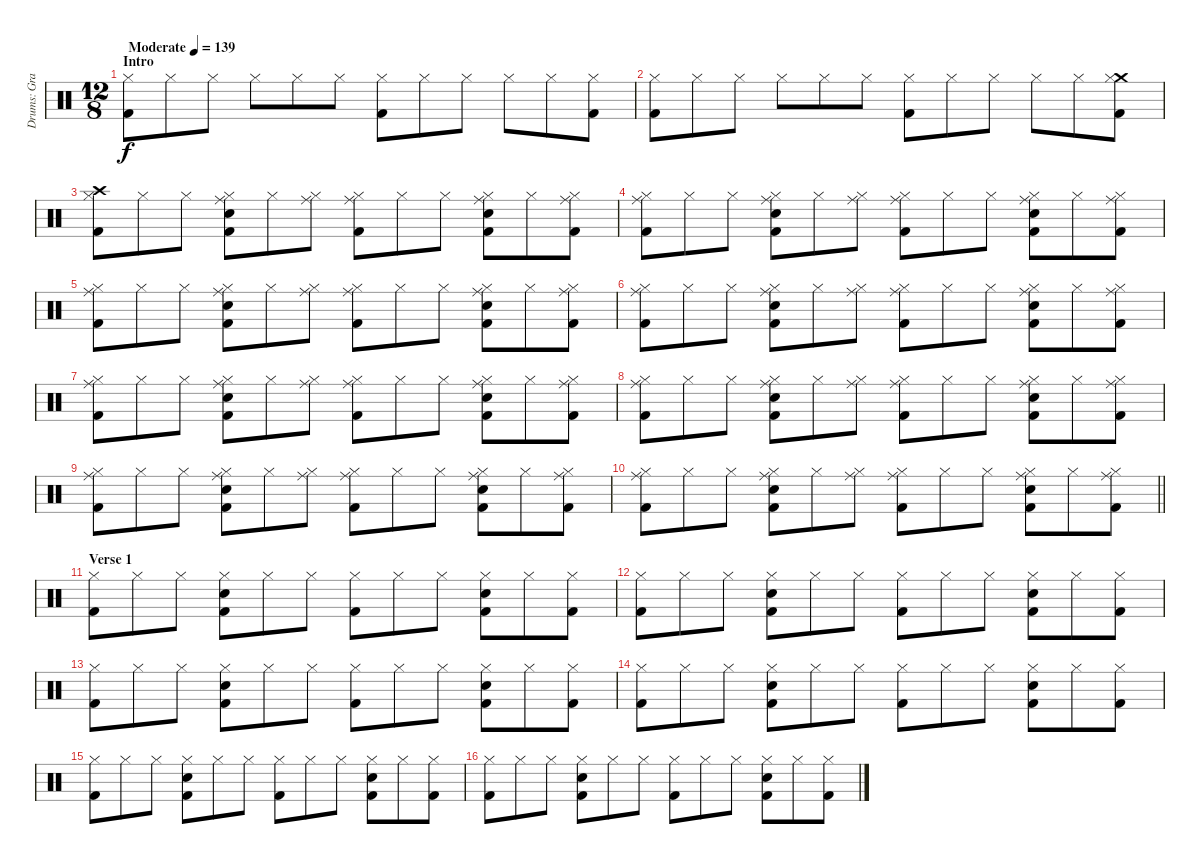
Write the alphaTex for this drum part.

\track ("Drums: Graeme Edge" "Drums: Gra") {instrument percussion}
\staff {score}
\articulation defaults
\ts (12 8)
\section ("" "Intro")
\tempo (139 "Moderate")
\clef neutral
\ks c
("Hi-Hat (closed)" "Kick (hit) 2").8{dy f} "Hi-Hat (closed)".8 "Hi-Hat (closed)".8 "Hi-Hat (closed)".8 "Hi-Hat (closed)".8 "Hi-Hat (closed)".8 ("Hi-Hat (closed)" "Kick (hit) 2").8 "Hi-Hat (closed)".8 "Hi-Hat (closed)".8 "Hi-Hat (closed)".8 "Hi-Hat (closed)".8 ("Hi-Hat (closed)" "Kick (hit) 2").8 |
("Hi-Hat (closed)" "Kick (hit) 2").8 "Hi-Hat (closed)".8 "Hi-Hat (closed)".8 "Hi-Hat (closed)".8 "Hi-Hat (closed)".8 "Hi-Hat (closed)".8 ("Hi-Hat (closed)" "Kick (hit) 2").8 "Hi-Hat (closed)".8 "Hi-Hat (closed)".8 "Hi-Hat (closed)".8 "Hi-Hat (closed)".8 ("Crash medium (hit)" "Hi-Hat (closed)" "Kick (hit) 2").8 |
("Crash high (hit)" "Hi-Hat (closed)" "Kick (hit) 2").8 "Hi-Hat (closed)".8 "Hi-Hat (closed)".8 ("Ride (middle)" "Hi-Hat (closed)" "Snare (hit) 2" "Kick (hit) 2").8 "Hi-Hat (closed)".8 ("Ride (middle)" "Hi-Hat (closed)").8 ("Ride (middle)" "Hi-Hat (closed)" "Kick (hit) 2").8 "Hi-Hat (closed)".8 "Hi-Hat (closed)".8 ("Ride (middle)" "Hi-Hat (closed)" "Snare (hit) 2" "Kick (hit) 2").8 "Hi-Hat (closed)".8 ("Ride (middle)" "Hi-Hat (closed)" "Kick (hit) 2").8 |
("Ride (middle)" "Hi-Hat (closed)" "Kick (hit) 2").8 "Hi-Hat (closed)".8 "Hi-Hat (closed)".8 ("Ride (middle)" "Hi-Hat (closed)" "Snare (hit) 2" "Kick (hit) 2").8 "Hi-Hat (closed)".8 ("Ride (middle)" "Hi-Hat (closed)").8 ("Ride (middle)" "Hi-Hat (closed)" "Kick (hit) 2").8 "Hi-Hat (closed)".8 "Hi-Hat (closed)".8 ("Ride (middle)" "Hi-Hat (closed)" "Snare (hit) 2" "Kick (hit) 2").8 "Hi-Hat (closed)".8 ("Ride (middle)" "Hi-Hat (closed)" "Kick (hit) 2").8 |
("Ride (middle)" "Hi-Hat (closed)" "Kick (hit) 2").8 "Hi-Hat (closed)".8 "Hi-Hat (closed)".8 ("Ride (middle)" "Hi-Hat (closed)" "Snare (hit) 2" "Kick (hit) 2").8 "Hi-Hat (closed)".8 ("Ride (middle)" "Hi-Hat (closed)").8 ("Ride (middle)" "Hi-Hat (closed)" "Kick (hit) 2").8 "Hi-Hat (closed)".8 "Hi-Hat (closed)".8 ("Ride (middle)" "Hi-Hat (closed)" "Snare (hit) 2" "Kick (hit) 2").8 "Hi-Hat (closed)".8 ("Ride (middle)" "Hi-Hat (closed)" "Kick (hit) 2").8 |
("Ride (middle)" "Hi-Hat (closed)" "Kick (hit) 2").8 "Hi-Hat (closed)".8 "Hi-Hat (closed)".8 ("Ride (middle)" "Hi-Hat (closed)" "Snare (hit) 2" "Kick (hit) 2").8 "Hi-Hat (closed)".8 ("Ride (middle)" "Hi-Hat (closed)").8 ("Ride (middle)" "Hi-Hat (closed)" "Kick (hit) 2").8 "Hi-Hat (closed)".8 "Hi-Hat (closed)".8 ("Ride (middle)" "Hi-Hat (closed)" "Snare (hit) 2" "Kick (hit) 2").8 "Hi-Hat (closed)".8 ("Ride (middle)" "Hi-Hat (closed)" "Kick (hit) 2").8 |
("Ride (middle)" "Hi-Hat (closed)" "Kick (hit) 2").8 "Hi-Hat (closed)".8 "Hi-Hat (closed)".8 ("Ride (middle)" "Hi-Hat (closed)" "Snare (hit) 2" "Kick (hit) 2").8 "Hi-Hat (closed)".8 ("Ride (middle)" "Hi-Hat (closed)").8 ("Ride (middle)" "Hi-Hat (closed)" "Kick (hit) 2").8 "Hi-Hat (closed)".8 "Hi-Hat (closed)".8 ("Ride (middle)" "Hi-Hat (closed)" "Snare (hit) 2" "Kick (hit) 2").8 "Hi-Hat (closed)".8 ("Ride (middle)" "Hi-Hat (closed)" "Kick (hit) 2").8 |
("Ride (middle)" "Hi-Hat (closed)" "Kick (hit) 2").8 "Hi-Hat (closed)".8 "Hi-Hat (closed)".8 ("Ride (middle)" "Hi-Hat (closed)" "Snare (hit) 2" "Kick (hit) 2").8 "Hi-Hat (closed)".8 ("Ride (middle)" "Hi-Hat (closed)").8 ("Ride (middle)" "Hi-Hat (closed)" "Kick (hit) 2").8 "Hi-Hat (closed)".8 "Hi-Hat (closed)".8 ("Ride (middle)" "Hi-Hat (closed)" "Snare (hit) 2" "Kick (hit) 2").8 "Hi-Hat (closed)".8 ("Ride (middle)" "Hi-Hat (closed)" "Kick (hit) 2").8 |
("Ride (middle)" "Hi-Hat (closed)" "Kick (hit) 2").8 "Hi-Hat (closed)".8 "Hi-Hat (closed)".8 ("Ride (middle)" "Hi-Hat (closed)" "Snare (hit) 2" "Kick (hit) 2").8 "Hi-Hat (closed)".8 ("Ride (middle)" "Hi-Hat (closed)").8 ("Ride (middle)" "Hi-Hat (closed)" "Kick (hit) 2").8 "Hi-Hat (closed)".8 "Hi-Hat (closed)".8 ("Ride (middle)" "Hi-Hat (closed)" "Snare (hit) 2" "Kick (hit) 2").8 "Hi-Hat (closed)".8 ("Ride (middle)" "Hi-Hat (closed)" "Kick (hit) 2").8 |
\barLineRight lightlight
("Ride (middle)" "Hi-Hat (closed)" "Kick (hit) 2").8 "Hi-Hat (closed)".8 "Hi-Hat (closed)".8 ("Ride (middle)" "Hi-Hat (closed)" "Snare (hit) 2" "Kick (hit) 2").8 "Hi-Hat (closed)".8 ("Ride (middle)" "Hi-Hat (closed)").8 ("Ride (middle)" "Hi-Hat (closed)" "Kick (hit) 2").8 "Hi-Hat (closed)".8 "Hi-Hat (closed)".8 ("Ride (middle)" "Hi-Hat (closed)" "Snare (hit) 2" "Kick (hit) 2").8 "Hi-Hat (closed)".8 ("Ride (middle)" "Hi-Hat (closed)" "Kick (hit) 2").8 |
\section ("" "Verse 1")
("Hi-Hat (closed)" "Kick (hit) 2").8 "Hi-Hat (closed)".8 "Hi-Hat (closed)".8 ("Hi-Hat (closed)" "Snare (hit) 2" "Kick (hit) 2").8 "Hi-Hat (closed)".8 "Hi-Hat (closed)".8 ("Hi-Hat (closed)" "Kick (hit) 2").8 "Hi-Hat (closed)".8 "Hi-Hat (closed)".8 ("Hi-Hat (closed)" "Snare (hit) 2" "Kick (hit) 2").8 "Hi-Hat (closed)".8 ("Hi-Hat (closed)" "Kick (hit) 2").8 |
("Hi-Hat (closed)" "Kick (hit) 2").8 "Hi-Hat (closed)".8 "Hi-Hat (closed)".8 ("Hi-Hat (closed)" "Snare (hit) 2" "Kick (hit) 2").8 "Hi-Hat (closed)".8 "Hi-Hat (closed)".8 ("Hi-Hat (closed)" "Kick (hit) 2").8 "Hi-Hat (closed)".8 "Hi-Hat (closed)".8 ("Hi-Hat (closed)" "Snare (hit) 2" "Kick (hit) 2").8 "Hi-Hat (closed)".8 ("Hi-Hat (closed)" "Kick (hit) 2").8 |
("Hi-Hat (closed)" "Kick (hit) 2").8 "Hi-Hat (closed)".8 "Hi-Hat (closed)".8 ("Hi-Hat (closed)" "Snare (hit) 2" "Kick (hit) 2").8 "Hi-Hat (closed)".8 "Hi-Hat (closed)".8 ("Hi-Hat (closed)" "Kick (hit) 2").8 "Hi-Hat (closed)".8 "Hi-Hat (closed)".8 ("Hi-Hat (closed)" "Snare (hit) 2" "Kick (hit) 2").8 "Hi-Hat (closed)".8 ("Hi-Hat (closed)" "Kick (hit) 2").8 |
("Hi-Hat (closed)" "Kick (hit) 2").8 "Hi-Hat (closed)".8 "Hi-Hat (closed)".8 ("Hi-Hat (closed)" "Snare (hit) 2" "Kick (hit) 2").8 "Hi-Hat (closed)".8 "Hi-Hat (closed)".8 ("Hi-Hat (closed)" "Kick (hit) 2").8 "Hi-Hat (closed)".8 "Hi-Hat (closed)".8 ("Hi-Hat (closed)" "Snare (hit) 2" "Kick (hit) 2").8 "Hi-Hat (closed)".8 ("Hi-Hat (closed)" "Kick (hit) 2").8 |
("Hi-Hat (closed)" "Kick (hit) 2").8 "Hi-Hat (closed)".8 "Hi-Hat (closed)".8 ("Hi-Hat (closed)" "Snare (hit) 2" "Kick (hit) 2").8 "Hi-Hat (closed)".8 "Hi-Hat (closed)".8 ("Hi-Hat (closed)" "Kick (hit) 2").8 "Hi-Hat (closed)".8 "Hi-Hat (closed)".8 ("Hi-Hat (closed)" "Snare (hit) 2" "Kick (hit) 2").8 "Hi-Hat (closed)".8 ("Hi-Hat (closed)" "Kick (hit) 2").8 |
("Hi-Hat (closed)" "Kick (hit) 2").8 "Hi-Hat (closed)".8 "Hi-Hat (closed)".8 ("Hi-Hat (closed)" "Snare (hit) 2" "Kick (hit) 2").8 "Hi-Hat (closed)".8 "Hi-Hat (closed)".8 ("Hi-Hat (closed)" "Kick (hit) 2").8 "Hi-Hat (closed)".8 "Hi-Hat (closed)".8 ("Hi-Hat (closed)" "Snare (hit) 2" "Kick (hit) 2").8 "Hi-Hat (closed)".8 ("Hi-Hat (closed)" "Kick (hit) 2").8
